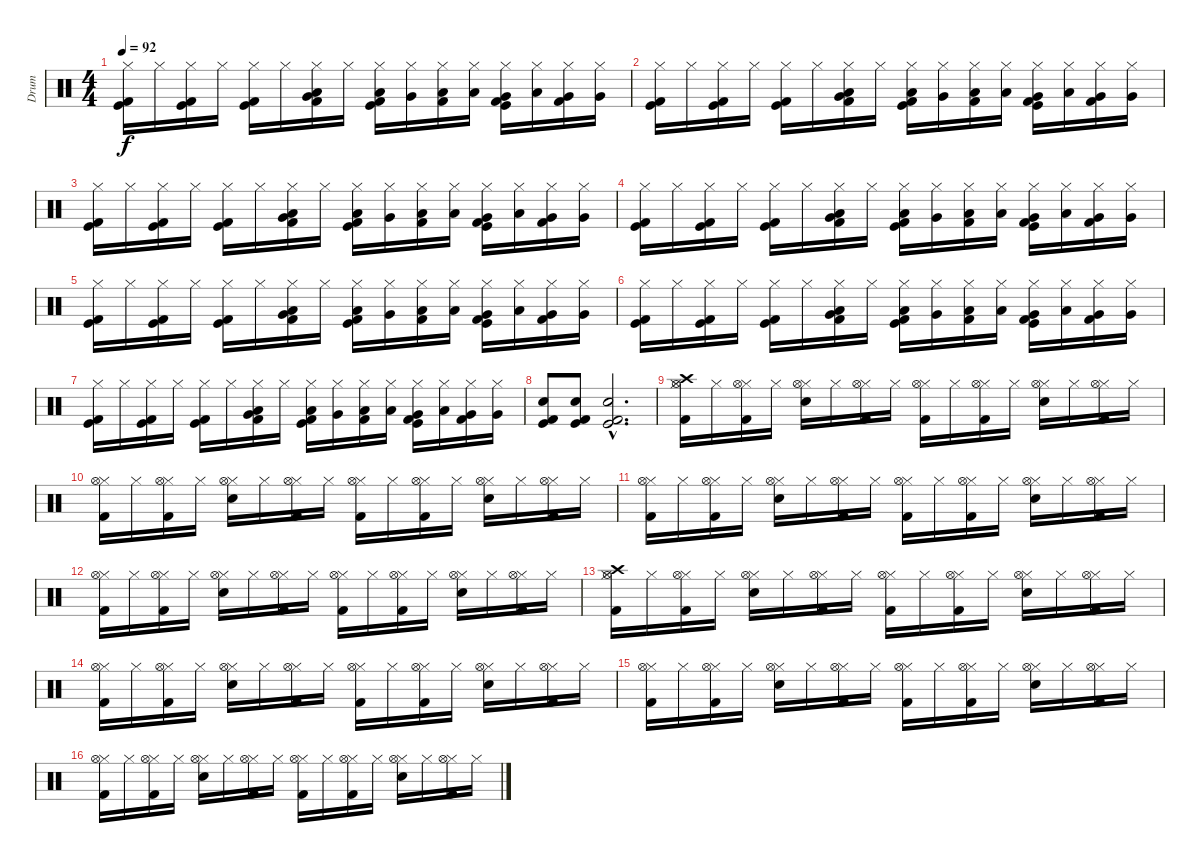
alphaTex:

\track ("Drum" "Drum") {instrument percussion}
\staff {score}
\articulation defaults
\ts (4 4)
\tempo 92
\clef neutral
\ks c
("Hi-Hat (closed)" "Kick (hit)" "Kick (hit) 2").16{dy f} "Hi-Hat (closed)".16 ("Hi-Hat (closed)" "Kick (hit)" "Kick (hit) 2").16 "Hi-Hat (closed)".16 ("Hi-Hat (closed)" "Kick (hit)" "Kick (hit) 2").16 "Hi-Hat (closed)".16 ("Hi-Hat (closed)" "Very Low Tom (hit)" "Low Floor Tom (hit)" "Kick (hit) 2").16 "Hi-Hat (closed)".16 ("Hi-Hat (closed)" "Low Floor Tom (hit)" "Kick (hit)" "Kick (hit) 2").16 ("Hi-Hat (closed)" "Very Low Tom (hit)").16 ("Hi-Hat (closed)" "Low Tom (hit)" "Kick (hit) 2").16 ("Hi-Hat (closed)" "Low Floor Tom (hit)").16 ("Hi-Hat (closed)" "Very Low Tom (hit)" "Kick (hit)" "Kick (hit) 2").16 ("Hi-Hat (closed)" "Low Floor Tom (hit)").16 ("Hi-Hat (closed)" "Very Low Tom (hit)" "Kick (hit) 2").16 ("Hi-Hat (closed)" "Very Low Tom (hit)").16 |
("Hi-Hat (closed)" "Kick (hit)" "Kick (hit) 2").16 "Hi-Hat (closed)".16 ("Hi-Hat (closed)" "Kick (hit)" "Kick (hit) 2").16 "Hi-Hat (closed)".16 ("Hi-Hat (closed)" "Kick (hit)" "Kick (hit) 2").16 "Hi-Hat (closed)".16 ("Hi-Hat (closed)" "Very Low Tom (hit)" "Low Floor Tom (hit)" "Kick (hit) 2").16 "Hi-Hat (closed)".16 ("Hi-Hat (closed)" "Low Floor Tom (hit)" "Kick (hit)" "Kick (hit) 2").16 ("Hi-Hat (closed)" "Very Low Tom (hit)").16 ("Hi-Hat (closed)" "Low Tom (hit)" "Kick (hit) 2").16 ("Hi-Hat (closed)" "Low Floor Tom (hit)").16 ("Hi-Hat (closed)" "Very Low Tom (hit)" "Kick (hit)" "Kick (hit) 2").16 ("Hi-Hat (closed)" "Low Floor Tom (hit)").16 ("Hi-Hat (closed)" "Very Low Tom (hit)" "Kick (hit) 2").16 ("Hi-Hat (closed)" "Very Low Tom (hit)").16 |
("Hi-Hat (closed)" "Kick (hit)" "Kick (hit) 2").16 "Hi-Hat (closed)".16 ("Hi-Hat (closed)" "Kick (hit)" "Kick (hit) 2").16 "Hi-Hat (closed)".16 ("Hi-Hat (closed)" "Kick (hit)" "Kick (hit) 2").16 "Hi-Hat (closed)".16 ("Hi-Hat (closed)" "Very Low Tom (hit)" "Low Floor Tom (hit)" "Kick (hit) 2").16 "Hi-Hat (closed)".16 ("Hi-Hat (closed)" "Low Floor Tom (hit)" "Kick (hit)" "Kick (hit) 2").16 ("Hi-Hat (closed)" "Very Low Tom (hit)").16 ("Hi-Hat (closed)" "Low Tom (hit)" "Kick (hit) 2").16 ("Hi-Hat (closed)" "Low Floor Tom (hit)").16 ("Hi-Hat (closed)" "Very Low Tom (hit)" "Kick (hit)" "Kick (hit) 2").16 ("Hi-Hat (closed)" "Low Floor Tom (hit)").16 ("Hi-Hat (closed)" "Very Low Tom (hit)" "Kick (hit) 2").16 ("Hi-Hat (closed)" "Very Low Tom (hit)").16 |
("Hi-Hat (closed)" "Kick (hit)" "Kick (hit) 2").16 "Hi-Hat (closed)".16 ("Hi-Hat (closed)" "Kick (hit)" "Kick (hit) 2").16 "Hi-Hat (closed)".16 ("Hi-Hat (closed)" "Kick (hit)" "Kick (hit) 2").16 "Hi-Hat (closed)".16 ("Hi-Hat (closed)" "Very Low Tom (hit)" "Low Floor Tom (hit)" "Kick (hit) 2").16 "Hi-Hat (closed)".16 ("Hi-Hat (closed)" "Low Floor Tom (hit)" "Kick (hit)" "Kick (hit) 2").16 ("Hi-Hat (closed)" "Very Low Tom (hit)").16 ("Hi-Hat (closed)" "Low Tom (hit)" "Kick (hit) 2").16 ("Hi-Hat (closed)" "Low Floor Tom (hit)").16 ("Hi-Hat (closed)" "Very Low Tom (hit)" "Kick (hit)" "Kick (hit) 2").16 ("Hi-Hat (closed)" "Low Floor Tom (hit)").16 ("Hi-Hat (closed)" "Very Low Tom (hit)" "Kick (hit) 2").16 ("Hi-Hat (closed)" "Very Low Tom (hit)").16 |
("Hi-Hat (closed)" "Kick (hit)" "Kick (hit) 2").16 "Hi-Hat (closed)".16 ("Hi-Hat (closed)" "Kick (hit)" "Kick (hit) 2").16 "Hi-Hat (closed)".16 ("Hi-Hat (closed)" "Kick (hit)" "Kick (hit) 2").16 "Hi-Hat (closed)".16 ("Hi-Hat (closed)" "Very Low Tom (hit)" "Low Floor Tom (hit)" "Kick (hit) 2").16 "Hi-Hat (closed)".16 ("Hi-Hat (closed)" "Low Floor Tom (hit)" "Kick (hit)" "Kick (hit) 2").16 ("Hi-Hat (closed)" "Very Low Tom (hit)").16 ("Hi-Hat (closed)" "Low Tom (hit)" "Kick (hit) 2").16 ("Hi-Hat (closed)" "Low Floor Tom (hit)").16 ("Hi-Hat (closed)" "Very Low Tom (hit)" "Kick (hit)" "Kick (hit) 2").16 ("Hi-Hat (closed)" "Low Floor Tom (hit)").16 ("Hi-Hat (closed)" "Very Low Tom (hit)" "Kick (hit) 2").16 ("Hi-Hat (closed)" "Very Low Tom (hit)").16 |
("Hi-Hat (closed)" "Kick (hit)" "Kick (hit) 2").16 "Hi-Hat (closed)".16 ("Hi-Hat (closed)" "Kick (hit)" "Kick (hit) 2").16 "Hi-Hat (closed)".16 ("Hi-Hat (closed)" "Kick (hit)" "Kick (hit) 2").16 "Hi-Hat (closed)".16 ("Hi-Hat (closed)" "Very Low Tom (hit)" "Low Floor Tom (hit)" "Kick (hit) 2").16 "Hi-Hat (closed)".16 ("Hi-Hat (closed)" "Low Floor Tom (hit)" "Kick (hit)" "Kick (hit) 2").16 ("Hi-Hat (closed)" "Very Low Tom (hit)").16 ("Hi-Hat (closed)" "Low Tom (hit)" "Kick (hit) 2").16 ("Hi-Hat (closed)" "Low Floor Tom (hit)").16 ("Hi-Hat (closed)" "Very Low Tom (hit)" "Kick (hit)" "Kick (hit) 2").16 ("Hi-Hat (closed)" "Low Floor Tom (hit)").16 ("Hi-Hat (closed)" "Very Low Tom (hit)" "Kick (hit) 2").16 ("Hi-Hat (closed)" "Very Low Tom (hit)").16 |
("Hi-Hat (closed)" "Kick (hit)" "Kick (hit) 2").16 "Hi-Hat (closed)".16 ("Hi-Hat (closed)" "Kick (hit)" "Kick (hit) 2").16 "Hi-Hat (closed)".16 ("Hi-Hat (closed)" "Kick (hit)" "Kick (hit) 2").16 "Hi-Hat (closed)".16 ("Hi-Hat (closed)" "Very Low Tom (hit)" "Low Floor Tom (hit)" "Kick (hit) 2").16 "Hi-Hat (closed)".16 ("Hi-Hat (closed)" "Low Floor Tom (hit)" "Kick (hit)" "Kick (hit) 2").16 ("Hi-Hat (closed)" "Very Low Tom (hit)").16 ("Hi-Hat (closed)" "Low Tom (hit)" "Kick (hit) 2").16 ("Hi-Hat (closed)" "Low Floor Tom (hit)").16 ("Hi-Hat (closed)" "Very Low Tom (hit)" "Kick (hit)" "Kick (hit) 2").16 ("Hi-Hat (closed)" "Low Floor Tom (hit)").16 ("Hi-Hat (closed)" "Very Low Tom (hit)" "Kick (hit) 2").16 ("Hi-Hat (closed)" "Very Low Tom (hit)").16 |
("Snare (hit) 2" "Kick (hit)" "Kick (hit) 2").8 ("Snare (hit) 2" "Kick (hit)" "Kick (hit) 2").8 ("Snare (hit) 2" "Kick (hit)"{hac} "Kick (hit) 2"{hac}).2{d} |
("Hi-Hat (closed)" "Crash high (hit)" "Hi-Hat (open)" "Kick (hit) 2").16 "Hi-Hat (closed)".16 ("Hi-Hat (closed)" "Hi-Hat (open)" "Kick (hit) 2").16 "Hi-Hat (closed)".16 ("Hi-Hat (closed)" "Snare (hit) 2" "Hi-Hat (open)").16 "Hi-Hat (closed)".16 ("Hi-Hat (closed)" "Hi-Hat (open)" "Kick (hit) 2").16 "Hi-Hat (closed)".16 ("Hi-Hat (closed)" "Hi-Hat (open)" "Kick (hit) 2").16 "Hi-Hat (closed)".16 ("Hi-Hat (closed)" "Hi-Hat (open)" "Kick (hit) 2").16 "Hi-Hat (closed)".16 ("Hi-Hat (closed)" "Snare (hit) 2" "Hi-Hat (open)").16 "Hi-Hat (closed)".16 ("Hi-Hat (closed)" "Hi-Hat (open)" "Kick (hit) 2").16 "Hi-Hat (closed)".16 |
("Hi-Hat (closed)" "Hi-Hat (open)" "Kick (hit) 2").16 "Hi-Hat (closed)".16 ("Hi-Hat (closed)" "Hi-Hat (open)" "Kick (hit) 2").16 "Hi-Hat (closed)".16 ("Hi-Hat (closed)" "Snare (hit) 2" "Hi-Hat (open)").16 "Hi-Hat (closed)".16 ("Hi-Hat (closed)" "Hi-Hat (open)" "Kick (hit) 2").16 "Hi-Hat (closed)".16 ("Hi-Hat (closed)" "Hi-Hat (open)" "Kick (hit) 2").16 "Hi-Hat (closed)".16 ("Hi-Hat (closed)" "Hi-Hat (open)" "Kick (hit) 2").16 "Hi-Hat (closed)".16 ("Hi-Hat (closed)" "Snare (hit) 2" "Hi-Hat (open)").16 "Hi-Hat (closed)".16 ("Hi-Hat (closed)" "Hi-Hat (open)" "Kick (hit) 2").16 "Hi-Hat (closed)".16 |
("Hi-Hat (closed)" "Hi-Hat (open)" "Kick (hit) 2").16 "Hi-Hat (closed)".16 ("Hi-Hat (closed)" "Hi-Hat (open)" "Kick (hit) 2").16 "Hi-Hat (closed)".16 ("Hi-Hat (closed)" "Snare (hit) 2" "Hi-Hat (open)").16 "Hi-Hat (closed)".16 ("Hi-Hat (closed)" "Hi-Hat (open)" "Kick (hit) 2").16 "Hi-Hat (closed)".16 ("Hi-Hat (closed)" "Hi-Hat (open)" "Kick (hit) 2").16 "Hi-Hat (closed)".16 ("Hi-Hat (closed)" "Hi-Hat (open)" "Kick (hit) 2").16 "Hi-Hat (closed)".16 ("Hi-Hat (closed)" "Snare (hit) 2" "Hi-Hat (open)").16 "Hi-Hat (closed)".16 ("Hi-Hat (closed)" "Hi-Hat (open)" "Kick (hit) 2").16 "Hi-Hat (closed)".16 |
("Hi-Hat (closed)" "Hi-Hat (open)" "Kick (hit) 2").16 "Hi-Hat (closed)".16 ("Hi-Hat (closed)" "Hi-Hat (open)" "Kick (hit) 2").16 "Hi-Hat (closed)".16 ("Hi-Hat (closed)" "Snare (hit) 2" "Hi-Hat (open)").16 "Hi-Hat (closed)".16 ("Hi-Hat (closed)" "Hi-Hat (open)" "Kick (hit) 2").16 "Hi-Hat (closed)".16 ("Hi-Hat (closed)" "Hi-Hat (open)" "Kick (hit) 2").16 "Hi-Hat (closed)".16 ("Hi-Hat (closed)" "Hi-Hat (open)" "Kick (hit) 2").16 "Hi-Hat (closed)".16 ("Hi-Hat (closed)" "Snare (hit) 2" "Hi-Hat (open)").16 "Hi-Hat (closed)".16 ("Hi-Hat (closed)" "Hi-Hat (open)" "Kick (hit) 2").16 "Hi-Hat (closed)".16 |
("Hi-Hat (closed)" "Crash high (hit)" "Hi-Hat (open)" "Kick (hit) 2").16 "Hi-Hat (closed)".16 ("Hi-Hat (closed)" "Hi-Hat (open)" "Kick (hit) 2").16 "Hi-Hat (closed)".16 ("Hi-Hat (closed)" "Snare (hit) 2" "Hi-Hat (open)").16 "Hi-Hat (closed)".16 ("Hi-Hat (closed)" "Hi-Hat (open)" "Kick (hit) 2").16 "Hi-Hat (closed)".16 ("Hi-Hat (closed)" "Hi-Hat (open)" "Kick (hit) 2").16 "Hi-Hat (closed)".16 ("Hi-Hat (closed)" "Hi-Hat (open)" "Kick (hit) 2").16 "Hi-Hat (closed)".16 ("Hi-Hat (closed)" "Snare (hit) 2" "Hi-Hat (open)").16 "Hi-Hat (closed)".16 ("Hi-Hat (closed)" "Hi-Hat (open)" "Kick (hit) 2").16 "Hi-Hat (closed)".16 |
("Hi-Hat (closed)" "Hi-Hat (open)" "Kick (hit) 2").16 "Hi-Hat (closed)".16 ("Hi-Hat (closed)" "Hi-Hat (open)" "Kick (hit) 2").16 "Hi-Hat (closed)".16 ("Hi-Hat (closed)" "Snare (hit) 2" "Hi-Hat (open)").16 "Hi-Hat (closed)".16 ("Hi-Hat (closed)" "Hi-Hat (open)" "Kick (hit) 2").16 "Hi-Hat (closed)".16 ("Hi-Hat (closed)" "Hi-Hat (open)" "Kick (hit) 2").16 "Hi-Hat (closed)".16 ("Hi-Hat (closed)" "Hi-Hat (open)" "Kick (hit) 2").16 "Hi-Hat (closed)".16 ("Hi-Hat (closed)" "Snare (hit) 2" "Hi-Hat (open)").16 "Hi-Hat (closed)".16 ("Hi-Hat (closed)" "Hi-Hat (open)" "Kick (hit) 2").16 "Hi-Hat (closed)".16 |
("Hi-Hat (closed)" "Hi-Hat (open)" "Kick (hit) 2").16 "Hi-Hat (closed)".16 ("Hi-Hat (closed)" "Hi-Hat (open)" "Kick (hit) 2").16 "Hi-Hat (closed)".16 ("Hi-Hat (closed)" "Snare (hit) 2" "Hi-Hat (open)").16 "Hi-Hat (closed)".16 ("Hi-Hat (closed)" "Hi-Hat (open)" "Kick (hit) 2").16 "Hi-Hat (closed)".16 ("Hi-Hat (closed)" "Hi-Hat (open)" "Kick (hit) 2").16 "Hi-Hat (closed)".16 ("Hi-Hat (closed)" "Hi-Hat (open)" "Kick (hit) 2").16 "Hi-Hat (closed)".16 ("Hi-Hat (closed)" "Snare (hit) 2" "Hi-Hat (open)").16 "Hi-Hat (closed)".16 ("Hi-Hat (closed)" "Hi-Hat (open)" "Kick (hit) 2").16 "Hi-Hat (closed)".16 |
("Hi-Hat (closed)" "Hi-Hat (open)" "Kick (hit) 2").16 "Hi-Hat (closed)".16 ("Hi-Hat (closed)" "Hi-Hat (open)" "Kick (hit) 2").16 "Hi-Hat (closed)".16 ("Hi-Hat (closed)" "Snare (hit) 2" "Hi-Hat (open)").16 "Hi-Hat (closed)".16 ("Hi-Hat (closed)" "Hi-Hat (open)" "Kick (hit) 2").16 "Hi-Hat (closed)".16 ("Hi-Hat (closed)" "Hi-Hat (open)" "Kick (hit) 2").16 "Hi-Hat (closed)".16 ("Hi-Hat (closed)" "Hi-Hat (open)" "Kick (hit) 2").16 "Hi-Hat (closed)".16 ("Hi-Hat (closed)" "Snare (hit) 2" "Hi-Hat (open)").16 "Hi-Hat (closed)".16 ("Hi-Hat (closed)" "Hi-Hat (open)" "Kick (hit) 2").16 "Hi-Hat (closed)".16
